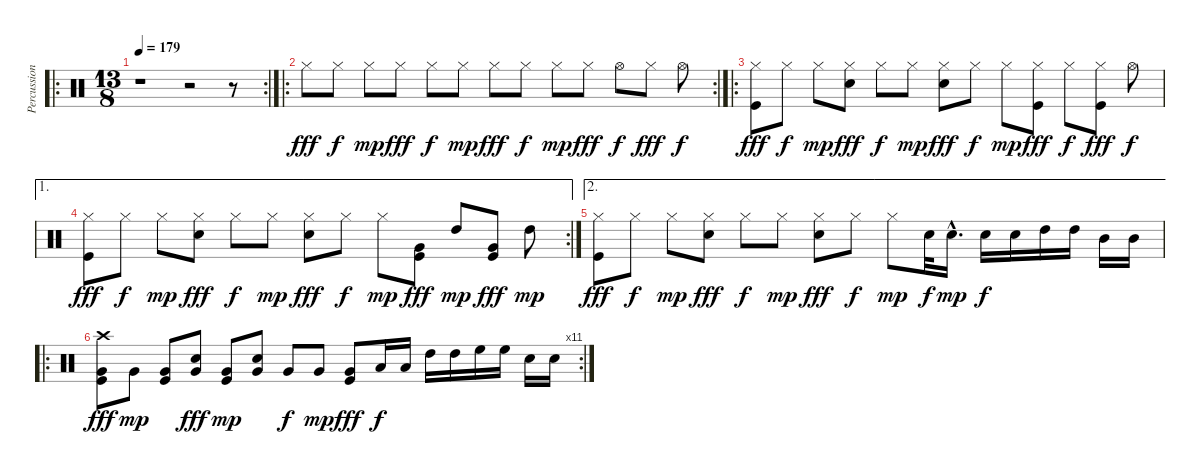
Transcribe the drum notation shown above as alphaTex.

\track ("Percussion" "Percussion") {instrument percussion}
\staff {score}
\articulation defaults
\ro
\rc 2
\ts (13 8)
\tempo 179
\clef neutral
\ks c
r.1{dy fff} r.2 r.8 |
\ro
\rc 2 "Hi-Hat (closed)".8 "Hi-Hat (closed)".8{dy f} "Hi-Hat (closed)".8{dy mp} "Hi-Hat (closed)".8{dy fff} "Hi-Hat (closed)".8{dy f} "Hi-Hat (closed)".8{dy mp} "Hi-Hat (closed)".8{dy fff} "Hi-Hat (closed)".8{dy f} "Hi-Hat (closed)".8{dy mp} "Hi-Hat (closed)".8{dy fff} "Hi-Hat (open)".8{dy f} "Hi-Hat (closed)".8{dy fff} "Hi-Hat (open)".8{dy f}
|
\ro
("Hi-Hat (closed)" "Kick (hit)").8{dy fff} "Hi-Hat (closed)".8{dy f} "Hi-Hat (closed)".8{dy mp} ("Hi-Hat (closed)" "Electric Snare (hit)").8{dy fff} "Hi-Hat (closed)".8{dy f} "Hi-Hat (closed)".8{dy mp} ("Hi-Hat (closed)" "Electric Snare (hit)").8{dy fff} "Hi-Hat (closed)".8{dy f} "Hi-Hat (closed)".8{dy mp} ("Hi-Hat (closed)" "Kick (hit)").8{dy fff} "Hi-Hat (closed)".8{dy f} ("Hi-Hat (closed)" "Kick (hit)").8{dy fff} "Hi-Hat (open)".8{dy f} |
\ae 1
\rc 2
("Hi-Hat (closed)" "Kick (hit)").8{dy fff} "Hi-Hat (closed)".8{dy f} "Hi-Hat (closed)".8{dy mp} ("Hi-Hat (closed)" "Electric Snare (hit)").8{dy fff} "Hi-Hat (closed)".8{dy f} "Hi-Hat (closed)".8{dy mp} ("Hi-Hat (closed)" "Electric Snare (hit)").8{dy fff} "Hi-Hat (closed)".8{dy f} "Hi-Hat (closed)".8{dy mp} ("Very Low Tom (hit)" "Kick (hit)").8{dy fff} "High Tom (hit)".8{dy mp} ("Very Low Tom (hit)" "Kick (hit)").8{dy fff} "High Tom (hit)".8{dy mp} |
\ae 2
("Hi-Hat (closed)" "Kick (hit)").8{dy fff} "Hi-Hat (closed)".8{dy f} "Hi-Hat (closed)".8{dy mp} ("Hi-Hat (closed)" "Electric Snare (hit)").8{dy fff} "Hi-Hat (closed)".8{dy f} "Hi-Hat (closed)".8{dy mp} ("Hi-Hat (closed)" "Electric Snare (hit)").8{dy fff} "Hi-Hat (closed)".8{dy f} "Hi-Hat (closed)".8{dy mp} "Electric Snare (hit)".32{dy f} "Electric Snare (hit)"{hac}.16{d dy mp} "Electric Snare (hit)".16{dy f} "Electric Snare (hit)".16 "High Tom (hit)".16 "High Tom (hit)".16 "Mid Tom (hit)".16 "Mid Tom (hit)".16 |
\ro
\rc 11
("Crash high (hit)" "Very Low Tom (hit)" "Kick (hit)").8{dy fff} "Very Low Tom (hit)".8{dy mp} ("Very Low Tom (hit)" "Kick (hit)").8 ("Electric Snare (hit)" "Very Low Tom (hit)").8{dy fff} ("Very Low Tom (hit)" "Kick (hit)").8{dy mp} ("Electric Snare (hit)" "Very Low Tom (hit)").8 "Very Low Tom (hit)".8{dy f} "Very Low Tom (hit)".8{dy mp} ("Very Low Tom (hit)" "Kick (hit)").8{dy fff} "Low Tom (hit)".16{dy f} "Low Tom (hit)".16 "High Tom (hit)".16 "High Tom (hit)".16 "High Floor Tom (hit)".16 "High Floor Tom (hit)".16 "Electric Snare (hit)".16 "Electric Snare (hit)".16
